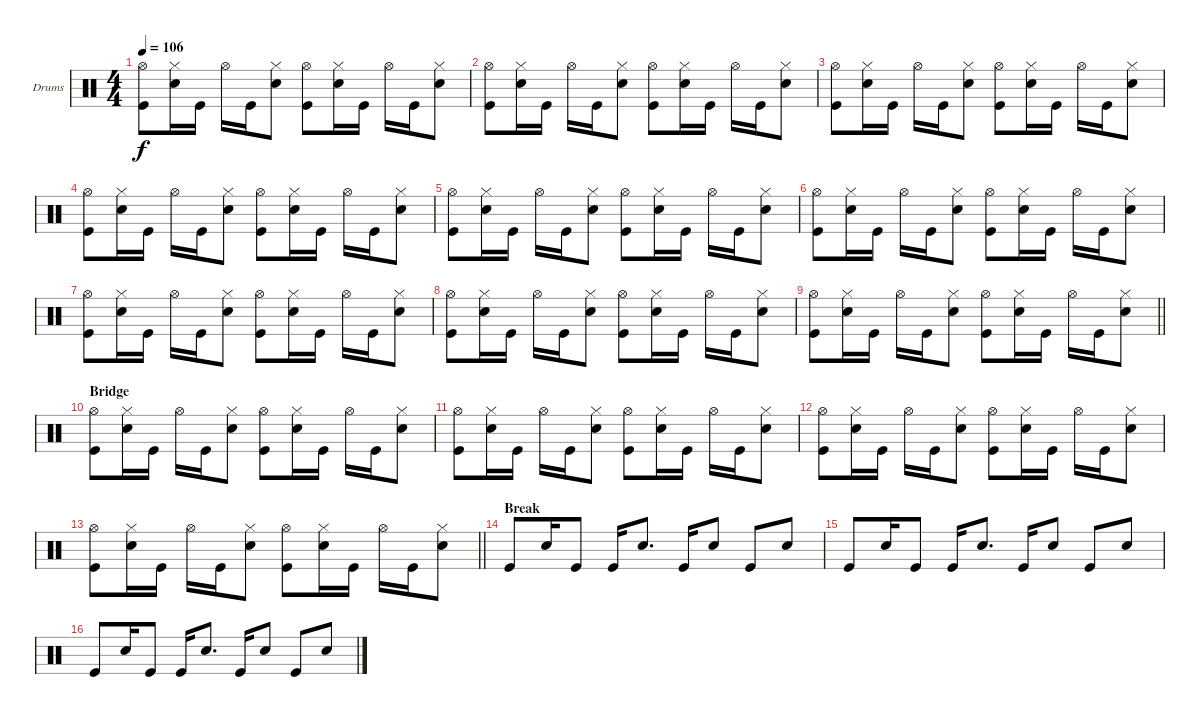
\bracketExtendMode groupsimilarinstruments
\firstSystemTrackNameOrientation horizontal
\otherSystemsTrackNameOrientation horizontal
\track ("Fabrizio" "Drums") {instrument percussion}
\staff {score}
\articulation defaults
\ts (4 4)
\tempo 106
\clef neutral
\ks c
("Hi-Hat (open)" "Kick (hit)").8{dy f} ("Hi-Hat (closed)" "Snare (hit) 2").16 "Kick (hit)".16 "Hi-Hat (open)".16 "Kick (hit)".16 ("Hi-Hat (closed)" "Snare (hit) 2").8 ("Hi-Hat (open)" "Kick (hit)").8 ("Hi-Hat (closed)" "Snare (hit) 2").16 "Kick (hit)".16 "Hi-Hat (open)".16 "Kick (hit)".16 ("Hi-Hat (closed)" "Snare (hit) 2").8 |
("Hi-Hat (open)" "Kick (hit)").8 ("Hi-Hat (closed)" "Snare (hit) 2").16 "Kick (hit)".16 "Hi-Hat (open)".16 "Kick (hit)".16 ("Hi-Hat (closed)" "Snare (hit) 2").8 ("Hi-Hat (open)" "Kick (hit)").8 ("Hi-Hat (closed)" "Snare (hit) 2").16 "Kick (hit)".16 "Hi-Hat (open)".16 "Kick (hit)".16 ("Hi-Hat (closed)" "Snare (hit) 2").8 |
("Hi-Hat (open)" "Kick (hit)").8 ("Hi-Hat (closed)" "Snare (hit) 2").16 "Kick (hit)".16 "Hi-Hat (open)".16 "Kick (hit)".16 ("Hi-Hat (closed)" "Snare (hit) 2").8 ("Hi-Hat (open)" "Kick (hit)").8 ("Hi-Hat (closed)" "Snare (hit) 2").16 "Kick (hit)".16 "Hi-Hat (open)".16 "Kick (hit)".16 ("Hi-Hat (closed)" "Snare (hit) 2").8 |
("Hi-Hat (open)" "Kick (hit)").8 ("Hi-Hat (closed)" "Snare (hit) 2").16 "Kick (hit)".16 "Hi-Hat (open)".16 "Kick (hit)".16 ("Hi-Hat (closed)" "Snare (hit) 2").8 ("Hi-Hat (open)" "Kick (hit)").8 ("Hi-Hat (closed)" "Snare (hit) 2").16 "Kick (hit)".16 "Hi-Hat (open)".16 "Kick (hit)".16 ("Hi-Hat (closed)" "Snare (hit) 2").8 |
("Hi-Hat (open)" "Kick (hit)").8 ("Hi-Hat (closed)" "Snare (hit) 2").16 "Kick (hit)".16 "Hi-Hat (open)".16 "Kick (hit)".16 ("Hi-Hat (closed)" "Snare (hit) 2").8 ("Hi-Hat (open)" "Kick (hit)").8 ("Hi-Hat (closed)" "Snare (hit) 2").16 "Kick (hit)".16 "Hi-Hat (open)".16 "Kick (hit)".16 ("Hi-Hat (closed)" "Snare (hit) 2").8 |
("Hi-Hat (open)" "Kick (hit)").8 ("Hi-Hat (closed)" "Snare (hit) 2").16 "Kick (hit)".16 "Hi-Hat (open)".16 "Kick (hit)".16 ("Hi-Hat (closed)" "Snare (hit) 2").8 ("Hi-Hat (open)" "Kick (hit)").8 ("Hi-Hat (closed)" "Snare (hit) 2").16 "Kick (hit)".16 "Hi-Hat (open)".16 "Kick (hit)".16 ("Hi-Hat (closed)" "Snare (hit) 2").8 |
("Hi-Hat (open)" "Kick (hit)").8 ("Hi-Hat (closed)" "Snare (hit) 2").16 "Kick (hit)".16 "Hi-Hat (open)".16 "Kick (hit)".16 ("Hi-Hat (closed)" "Snare (hit) 2").8 ("Hi-Hat (open)" "Kick (hit)").8 ("Hi-Hat (closed)" "Snare (hit) 2").16 "Kick (hit)".16 "Hi-Hat (open)".16 "Kick (hit)".16 ("Hi-Hat (closed)" "Snare (hit) 2").8 |
("Hi-Hat (open)" "Kick (hit)").8 ("Hi-Hat (closed)" "Snare (hit) 2").16 "Kick (hit)".16 "Hi-Hat (open)".16 "Kick (hit)".16 ("Hi-Hat (closed)" "Snare (hit) 2").8 ("Hi-Hat (open)" "Kick (hit)").8 ("Hi-Hat (closed)" "Snare (hit) 2").16 "Kick (hit)".16 "Hi-Hat (open)".16 "Kick (hit)".16 ("Hi-Hat (closed)" "Snare (hit) 2").8 |
\barLineRight lightlight
("Hi-Hat (open)" "Kick (hit)").8 ("Hi-Hat (closed)" "Snare (hit) 2").16 "Kick (hit)".16 "Hi-Hat (open)".16 "Kick (hit)".16 ("Hi-Hat (closed)" "Snare (hit) 2").8 ("Hi-Hat (open)" "Kick (hit)").8 ("Hi-Hat (closed)" "Snare (hit) 2").16 "Kick (hit)".16 "Hi-Hat (open)".16 "Kick (hit)".16 ("Hi-Hat (closed)" "Snare (hit) 2").8 |
\section ("" "Bridge")
("Hi-Hat (open)" "Kick (hit)").8 ("Hi-Hat (closed)" "Snare (hit) 2").16 "Kick (hit)".16 "Hi-Hat (open)".16 "Kick (hit)".16 ("Hi-Hat (closed)" "Snare (hit) 2").8 ("Hi-Hat (open)" "Kick (hit)").8 ("Hi-Hat (closed)" "Snare (hit) 2").16 "Kick (hit)".16 "Hi-Hat (open)".16 "Kick (hit)".16 ("Hi-Hat (closed)" "Snare (hit) 2").8 |
("Hi-Hat (open)" "Kick (hit)").8 ("Hi-Hat (closed)" "Snare (hit) 2").16 "Kick (hit)".16 "Hi-Hat (open)".16 "Kick (hit)".16 ("Hi-Hat (closed)" "Snare (hit) 2").8 ("Hi-Hat (open)" "Kick (hit)").8 ("Hi-Hat (closed)" "Snare (hit) 2").16 "Kick (hit)".16 "Hi-Hat (open)".16 "Kick (hit)".16 ("Hi-Hat (closed)" "Snare (hit) 2").8 |
("Hi-Hat (open)" "Kick (hit)").8 ("Hi-Hat (closed)" "Snare (hit) 2").16 "Kick (hit)".16 "Hi-Hat (open)".16 "Kick (hit)".16 ("Hi-Hat (closed)" "Snare (hit) 2").8 ("Hi-Hat (open)" "Kick (hit)").8 ("Hi-Hat (closed)" "Snare (hit) 2").16 "Kick (hit)".16 "Hi-Hat (open)".16 "Kick (hit)".16 ("Hi-Hat (closed)" "Snare (hit) 2").8 |
\barLineRight lightlight
("Hi-Hat (open)" "Kick (hit)").8 ("Hi-Hat (closed)" "Snare (hit) 2").16 "Kick (hit)".16 "Hi-Hat (open)".16 "Kick (hit)".16 ("Hi-Hat (closed)" "Snare (hit) 2").8 ("Hi-Hat (open)" "Kick (hit)").8 ("Hi-Hat (closed)" "Snare (hit) 2").16 "Kick (hit)".16 "Hi-Hat (open)".16 "Kick (hit)".16 ("Hi-Hat (closed)" "Snare (hit) 2").8 |
\section ("" "Break")
"Kick (hit)".8 "Snare (hit) 2".16 "Kick (hit)".8 "Kick (hit)".16 "Snare (hit) 2".8{d} "Kick (hit)".16 "Snare (hit) 2".8 "Kick (hit)".8 "Snare (hit) 2".8 |
"Kick (hit)".8 "Snare (hit) 2".16 "Kick (hit)".8 "Kick (hit)".16 "Snare (hit) 2".8{d} "Kick (hit)".16 "Snare (hit) 2".8 "Kick (hit)".8 "Snare (hit) 2".8 |
"Kick (hit)".8 "Snare (hit) 2".16 "Kick (hit)".8 "Kick (hit)".16 "Snare (hit) 2".8{d} "Kick (hit)".16 "Snare (hit) 2".8 "Kick (hit)".8 "Snare (hit) 2".8
